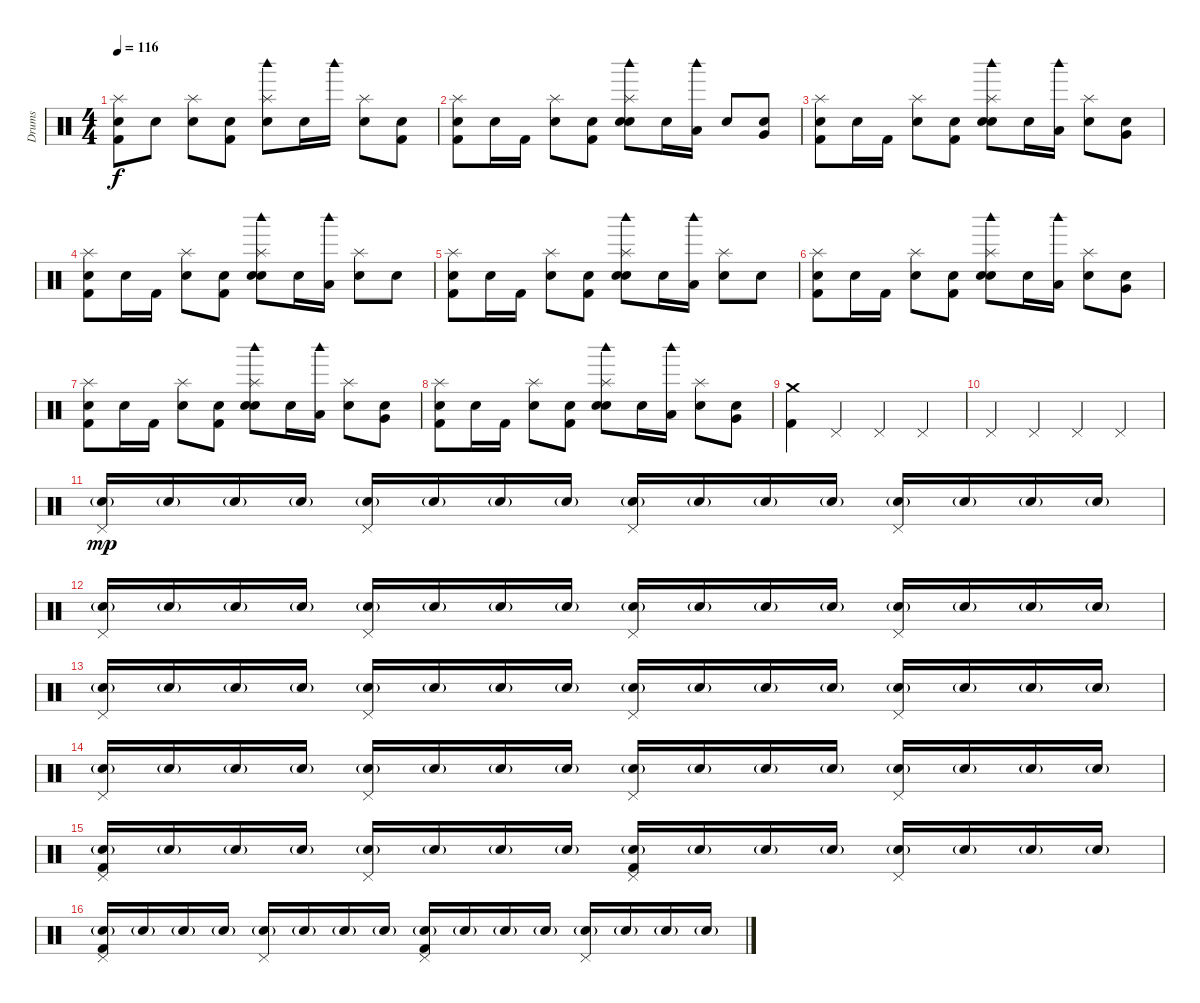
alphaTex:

\track ("Drums" "Drums") {instrument percussion}
\staff {score}
\articulation defaults
\ts (4 4)
\tempo 116
\clef neutral
\ks c
("Splash (hit)" "Kick (hit) 2" "Snare (hit)"{x}).8{dy f} "Snare (hit)"{x}.8 ("Splash (hit)" "Snare (hit)"{x}).8 ("Kick (hit) 2" "Snare (hit)"{x}).8 ("Woodblock high (hit)" "Splash (hit)" "Snare (hit)"{x}).8 "Snare (hit)"{x}.16 "Woodblock high (hit)".16 ("Splash (hit)" "Snare (hit)"{x}).8 ("Kick (hit) 2" "Snare (hit)"{x}).8 |
("Splash (hit)" "Kick (hit) 2" "Snare (hit)"{x}).8 "Snare (hit)"{x}.16 "Kick (hit) 2".16 ("Splash (hit)" "Snare (hit)"{x}).8 ("Kick (hit) 2" "Snare (hit)"{x}).8 ("Woodblock high (hit)" "Splash (hit)" "Snare (hit) 2" "Snare (hit)"{x}).8 "Snare (hit)"{x}.16 ("Woodblock high (hit)" "Low Tom (hit)").16 "Snare (hit)"{x}.8 ("Very Low Tom (hit)" "Snare (hit)"{x}).8 |
("Splash (hit)" "Kick (hit) 2" "Snare (hit)"{x}).8 "Snare (hit)"{x}.16 "Kick (hit) 2".16 ("Splash (hit)" "Snare (hit)"{x}).8 ("Kick (hit) 2" "Snare (hit)"{x}).8 ("Woodblock high (hit)" "Splash (hit)" "Snare (hit) 2" "Snare (hit)"{x}).8 "Snare (hit)"{x}.16 ("Woodblock high (hit)" "Low Tom (hit)").16 ("Splash (hit)" "Snare (hit)"{x}).8 ("Very Low Tom (hit)" "Snare (hit)"{x}).8 |
("Splash (hit)" "Kick (hit) 2" "Snare (hit)"{x}).8 "Snare (hit)"{x}.16 "Kick (hit) 2".16 ("Splash (hit)" "Snare (hit)"{x}).8 ("Kick (hit) 2" "Snare (hit)"{x}).8 ("Woodblock high (hit)" "Splash (hit)" "Snare (hit) 2" "Snare (hit)"{x}).8 "Snare (hit)"{x}.16 ("Woodblock high (hit)" "Low Tom (hit)").16 ("Splash (hit)" "Snare (hit)"{x}).8 "Snare (hit)"{x}.8 |
("Splash (hit)" "Kick (hit) 2" "Snare (hit)"{x}).8 "Snare (hit)"{x}.16 "Kick (hit) 2".16 ("Splash (hit)" "Snare (hit)"{x}).8 ("Kick (hit) 2" "Snare (hit)"{x}).8 ("Woodblock high (hit)" "Splash (hit)" "Snare (hit) 2" "Snare (hit)"{x}).8 "Snare (hit)"{x}.16 ("Woodblock high (hit)" "Low Tom (hit)").16 ("Splash (hit)" "Snare (hit)"{x}).8 "Snare (hit)"{x}.8 |
("Splash (hit)" "Kick (hit) 2" "Snare (hit)"{x}).8 "Snare (hit)"{x}.16 "Kick (hit) 2".16 ("Splash (hit)" "Snare (hit)"{x}).8 ("Kick (hit) 2" "Snare (hit)"{x}).8 ("Woodblock high (hit)" "Splash (hit)" "Snare (hit) 2" "Snare (hit)"{x}).8 "Snare (hit)"{x}.16 ("Woodblock high (hit)" "Low Tom (hit)").16 ("Splash (hit)" "Snare (hit)"{x}).8 ("Very Low Tom (hit)" "Snare (hit)"{x}).8 |
("Splash (hit)" "Kick (hit) 2" "Snare (hit)"{x}).8 "Snare (hit)"{x}.16 "Kick (hit) 2".16 ("Splash (hit)" "Snare (hit)"{x}).8 ("Kick (hit) 2" "Snare (hit)"{x}).8 ("Woodblock high (hit)" "Splash (hit)" "Snare (hit) 2" "Snare (hit)"{x}).8 "Snare (hit)"{x}.16 ("Woodblock high (hit)" "Low Tom (hit)").16 ("Splash (hit)" "Snare (hit)"{x}).8 ("Very Low Tom (hit)" "Snare (hit)"{x}).8 |
("Splash (hit)" "Kick (hit) 2" "Snare (hit)"{x}).8 "Snare (hit)"{x}.16 "Kick (hit) 2".16 ("Splash (hit)" "Snare (hit)"{x}).8 ("Kick (hit) 2" "Snare (hit)"{x}).8 ("Woodblock high (hit)" "Splash (hit)" "Snare (hit) 2" "Snare (hit)"{x}).8 "Snare (hit)"{x}.16 ("Woodblock high (hit)" "Low Tom (hit)").16 ("Splash (hit)" "Snare (hit)"{x}).8 ("Very Low Tom (hit)" "Snare (hit)"{x}).8 |
("Crash medium (hit)" "Kick (hit) 2").4 "Pedal Hi-Hat (hit)".4 "Pedal Hi-Hat (hit)".4 "Pedal Hi-Hat (hit)".4 |
"Pedal Hi-Hat (hit)".4 "Pedal Hi-Hat (hit)".4 "Pedal Hi-Hat (hit)".4 "Pedal Hi-Hat (hit)".4 |
("Pedal Hi-Hat (hit)" "Snare (hit) 2"{g}).16{dy mp volume 6} "Snare (hit) 2"{g}.16 "Snare (hit) 2"{g}.16 "Snare (hit) 2"{g}.16 ("Pedal Hi-Hat (hit)" "Snare (hit) 2"{g}).16 "Snare (hit) 2"{g}.16 "Snare (hit) 2"{g}.16 "Snare (hit) 2"{g}.16 ("Pedal Hi-Hat (hit)" "Snare (hit) 2"{g}).16{volume 7} "Snare (hit) 2"{g}.16 "Snare (hit) 2"{g}.16 "Snare (hit) 2"{g}.16 ("Pedal Hi-Hat (hit)" "Snare (hit) 2"{g}).16 "Snare (hit) 2"{g}.16 "Snare (hit) 2"{g}.16 "Snare (hit) 2"{g}.16 |
("Pedal Hi-Hat (hit)" "Snare (hit) 2"{g}).16{volume 8} "Snare (hit) 2"{g}.16 "Snare (hit) 2"{g}.16 "Snare (hit) 2"{g}.16 ("Pedal Hi-Hat (hit)" "Snare (hit) 2"{g}).16 "Snare (hit) 2"{g}.16 "Snare (hit) 2"{g}.16 "Snare (hit) 2"{g}.16 ("Pedal Hi-Hat (hit)" "Snare (hit) 2"{g}).16{volume 9} "Snare (hit) 2"{g}.16 "Snare (hit) 2"{g}.16 "Snare (hit) 2"{g}.16 ("Pedal Hi-Hat (hit)" "Snare (hit) 2"{g}).16 "Snare (hit) 2"{g}.16 "Snare (hit) 2"{g}.16 "Snare (hit) 2"{g}.16 |
("Pedal Hi-Hat (hit)" "Snare (hit) 2"{g}).16{volume 10} "Snare (hit) 2"{g}.16 "Snare (hit) 2"{g}.16 "Snare (hit) 2"{g}.16 ("Pedal Hi-Hat (hit)" "Snare (hit) 2"{g}).16 "Snare (hit) 2"{g}.16 "Snare (hit) 2"{g}.16 "Snare (hit) 2"{g}.16 ("Pedal Hi-Hat (hit)" "Snare (hit) 2"{g}).16{volume 12} "Snare (hit) 2"{g}.16 "Snare (hit) 2"{g}.16 "Snare (hit) 2"{g}.16 ("Pedal Hi-Hat (hit)" "Snare (hit) 2"{g}).16 "Snare (hit) 2"{g}.16 "Snare (hit) 2"{g}.16 "Snare (hit) 2"{g}.16 |
("Pedal Hi-Hat (hit)" "Snare (hit) 2"{g}).16{volume 14} "Snare (hit) 2"{g}.16 "Snare (hit) 2"{g}.16 "Snare (hit) 2"{g}.16 ("Pedal Hi-Hat (hit)" "Snare (hit) 2"{g}).16 "Snare (hit) 2"{g}.16 "Snare (hit) 2"{g}.16 "Snare (hit) 2"{g}.16 ("Pedal Hi-Hat (hit)" "Snare (hit) 2"{g}).16{volume 14} "Snare (hit) 2"{g}.16 "Snare (hit) 2"{g}.16 "Snare (hit) 2"{g}.16 ("Pedal Hi-Hat (hit)" "Snare (hit) 2"{g}).16 "Snare (hit) 2"{g}.16 "Snare (hit) 2"{g}.16 "Snare (hit) 2"{g}.16 |
("Pedal Hi-Hat (hit)" "Kick (hit) 2" "Snare (hit) 2"{g}).16{volume 16} "Snare (hit) 2"{g}.16 "Snare (hit) 2"{g}.16 "Snare (hit) 2"{g}.16 ("Pedal Hi-Hat (hit)" "Snare (hit) 2"{g}).16 "Snare (hit) 2"{g}.16 "Snare (hit) 2"{g}.16 "Snare (hit) 2"{g}.16 ("Pedal Hi-Hat (hit)" "Kick (hit) 2" "Snare (hit) 2"{g}).16 "Snare (hit) 2"{g}.16 "Snare (hit) 2"{g}.16 "Snare (hit) 2"{g}.16 ("Pedal Hi-Hat (hit)" "Snare (hit) 2"{g}).16 "Snare (hit) 2"{g}.16 "Snare (hit) 2"{g}.16 "Snare (hit) 2"{g}.16 |
("Pedal Hi-Hat (hit)" "Kick (hit) 2" "Snare (hit) 2"{g}).16 "Snare (hit) 2"{g}.16 "Snare (hit) 2"{g}.16 "Snare (hit) 2"{g}.16 ("Pedal Hi-Hat (hit)" "Snare (hit) 2"{g}).16 "Snare (hit) 2"{g}.16 "Snare (hit) 2"{g}.16 "Snare (hit) 2"{g}.16 ("Pedal Hi-Hat (hit)" "Kick (hit) 2" "Snare (hit) 2"{g}).16 "Snare (hit) 2"{g}.16 "Snare (hit) 2"{g}.16 "Snare (hit) 2"{g}.16 ("Pedal Hi-Hat (hit)" "Snare (hit) 2"{g}).16 "Snare (hit) 2"{g}.16 "Snare (hit) 2"{g}.16 "Snare (hit) 2"{g}.16
